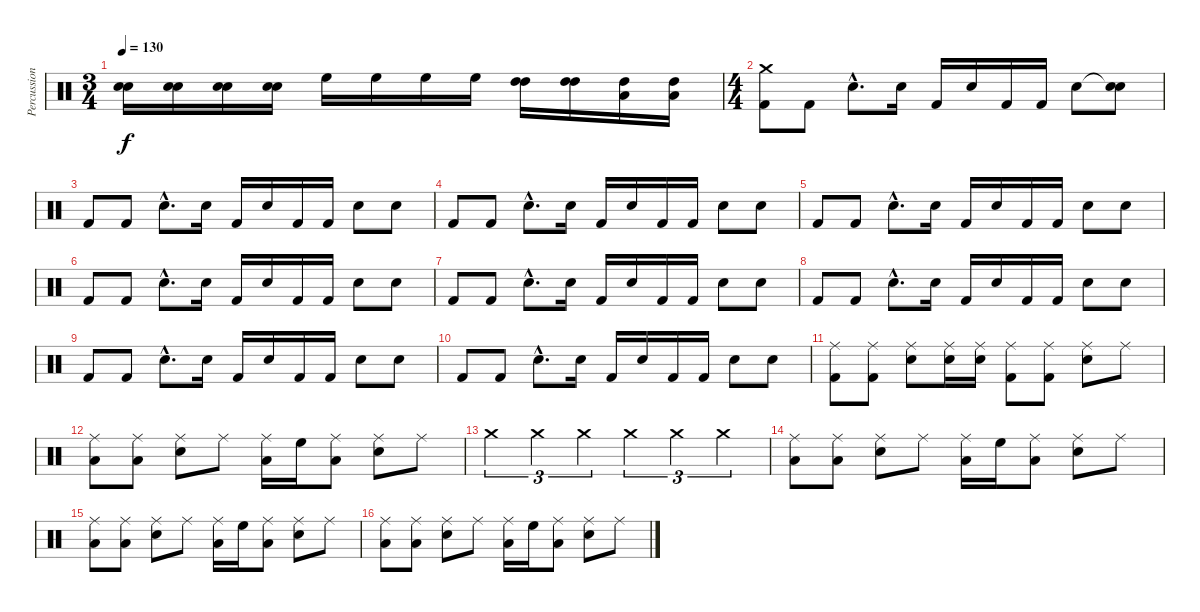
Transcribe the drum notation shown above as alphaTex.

\track ("Percussions" "Percussion") {instrument percussion}
\staff {score}
\articulation defaults
\ts (3 4)
\tempo 130
\clef neutral
\ks c
("Electric Snare (hit)" "Electric Snare (hit)").16{dy f} ("Electric Snare (hit)" "Electric Snare (hit)").16 ("Electric Snare (hit)" "Electric Snare (hit)").16 ("Electric Snare (hit)" "Electric Snare (hit)").16 "High Floor Tom (hit)".16 "High Floor Tom (hit)".16 "High Floor Tom (hit)".16 "High Floor Tom (hit)".16 ("High Tom (hit)" "High Tom (hit)").16 ("High Tom (hit)" "High Tom (hit)").16 ("Low Tom (hit)" "High Tom (hit)").16 ("Low Tom (hit)" "High Tom (hit)").16 |
\ts (4 4)
("Crash medium (hit)" "Kick (hit) 2").8 "Kick (hit) 2".8 "Electric Snare (hit)"{hac}.8{d} "Electric Snare (hit)".16 "Kick (hit) 2".16 "Electric Snare (hit)".16 "Kick (hit) 2".16 "Kick (hit) 2".16 "Electric Snare (hit)".8 ("Snare (hit)"{t} "Electric Snare (hit)").8 |
"Kick (hit) 2".8 "Kick (hit) 2".8 "Electric Snare (hit)"{hac}.8{d} "Electric Snare (hit)".16 "Kick (hit) 2".16 "Electric Snare (hit)".16 "Kick (hit) 2".16 "Kick (hit) 2".16 "Electric Snare (hit)".8 "Electric Snare (hit)".8 |
"Kick (hit) 2".8 "Kick (hit) 2".8 "Electric Snare (hit)"{hac}.8{d} "Electric Snare (hit)".16 "Kick (hit) 2".16 "Electric Snare (hit)".16 "Kick (hit) 2".16 "Kick (hit) 2".16 "Electric Snare (hit)".8 "Electric Snare (hit)".8 |
"Kick (hit) 2".8 "Kick (hit) 2".8 "Electric Snare (hit)"{hac}.8{d} "Electric Snare (hit)".16 "Kick (hit) 2".16 "Electric Snare (hit)".16 "Kick (hit) 2".16 "Kick (hit) 2".16 "Electric Snare (hit)".8 "Electric Snare (hit)".8 |
"Kick (hit) 2".8 "Kick (hit) 2".8 "Electric Snare (hit)"{hac}.8{d} "Electric Snare (hit)".16 "Kick (hit) 2".16 "Electric Snare (hit)".16 "Kick (hit) 2".16 "Kick (hit) 2".16 "Electric Snare (hit)".8 "Electric Snare (hit)".8 |
"Kick (hit) 2".8 "Kick (hit) 2".8 "Electric Snare (hit)"{hac}.8{d} "Electric Snare (hit)".16 "Kick (hit) 2".16 "Electric Snare (hit)".16 "Kick (hit) 2".16 "Kick (hit) 2".16 "Electric Snare (hit)".8 "Electric Snare (hit)".8 |
"Kick (hit) 2".8 "Kick (hit) 2".8 "Electric Snare (hit)"{hac}.8{d} "Electric Snare (hit)".16 "Kick (hit) 2".16 "Electric Snare (hit)".16 "Kick (hit) 2".16 "Kick (hit) 2".16 "Electric Snare (hit)".8 "Electric Snare (hit)".8 |
"Kick (hit) 2".8 "Kick (hit) 2".8 "Electric Snare (hit)"{hac}.8{d} "Electric Snare (hit)".16 "Kick (hit) 2".16 "Electric Snare (hit)".16 "Kick (hit) 2".16 "Kick (hit) 2".16 "Electric Snare (hit)".8 "Electric Snare (hit)".8 |
"Kick (hit) 2".8 "Kick (hit) 2".8 "Electric Snare (hit)"{hac}.8{d} "Electric Snare (hit)".16 "Kick (hit) 2".16 "Electric Snare (hit)".16 "Kick (hit) 2".16 "Kick (hit) 2".16 "Electric Snare (hit)".8 "Electric Snare (hit)".8 |
("Kick (hit) 2" "Ride (middle)").8 ("Kick (hit) 2" "Ride (middle)").8 ("Electric Snare (hit)" "Ride (middle)").8 ("Electric Snare (hit)" "Ride (middle)").16 ("Electric Snare (hit)" "Ride (middle)").16 ("Kick (hit) 2" "Ride (middle)").8 ("Kick (hit) 2" "Ride (middle)").8 ("Electric Snare (hit)" "Ride (middle)").8 "Ride (middle)".8 |
("Low Floor Tom (hit)" "Ride (middle)").8 ("Low Floor Tom (hit)" "Ride (middle)").8 ("Electric Snare (hit)" "Ride (middle)").8 "Ride (middle)".8 ("Low Floor Tom (hit)" "Ride (middle)").16 "High Floor Tom (hit)".16 ("Low Floor Tom (hit)" "Ride (middle)").8 ("Electric Snare (hit)" "Ride (middle)").8 "Ride (middle)".8 |
"Crash medium (hit)".4{tu (3 2)} "Crash medium (hit)".4{tu (3 2)} "Crash medium (hit)".4{tu (3 2)} "Crash medium (hit)".4{tu (3 2)} "Crash medium (hit)".4{tu (3 2)} "Crash medium (hit)".4{tu (3 2)} |
("Low Floor Tom (hit)" "Ride (middle)").8 ("Low Floor Tom (hit)" "Ride (middle)").8 ("Electric Snare (hit)" "Ride (middle)").8 "Ride (middle)".8 ("Low Floor Tom (hit)" "Ride (middle)").16 "High Floor Tom (hit)".16 ("Low Floor Tom (hit)" "Ride (middle)").8 ("Electric Snare (hit)" "Ride (middle)").8 "Ride (middle)".8 |
("Low Floor Tom (hit)" "Ride (middle)").8 ("Low Floor Tom (hit)" "Ride (middle)").8 ("Electric Snare (hit)" "Ride (middle)").8 "Ride (middle)".8 ("Low Floor Tom (hit)" "Ride (middle)").16 "High Floor Tom (hit)".16 ("Low Floor Tom (hit)" "Ride (middle)").8 ("Electric Snare (hit)" "Ride (middle)").8 "Ride (middle)".8 |
("Low Floor Tom (hit)" "Ride (middle)").8 ("Low Floor Tom (hit)" "Ride (middle)").8 ("Electric Snare (hit)" "Ride (middle)").8 "Ride (middle)".8 ("Low Floor Tom (hit)" "Ride (middle)").16 "High Floor Tom (hit)".16 ("Low Floor Tom (hit)" "Ride (middle)").8 ("Electric Snare (hit)" "Ride (middle)").8 "Ride (middle)".8
